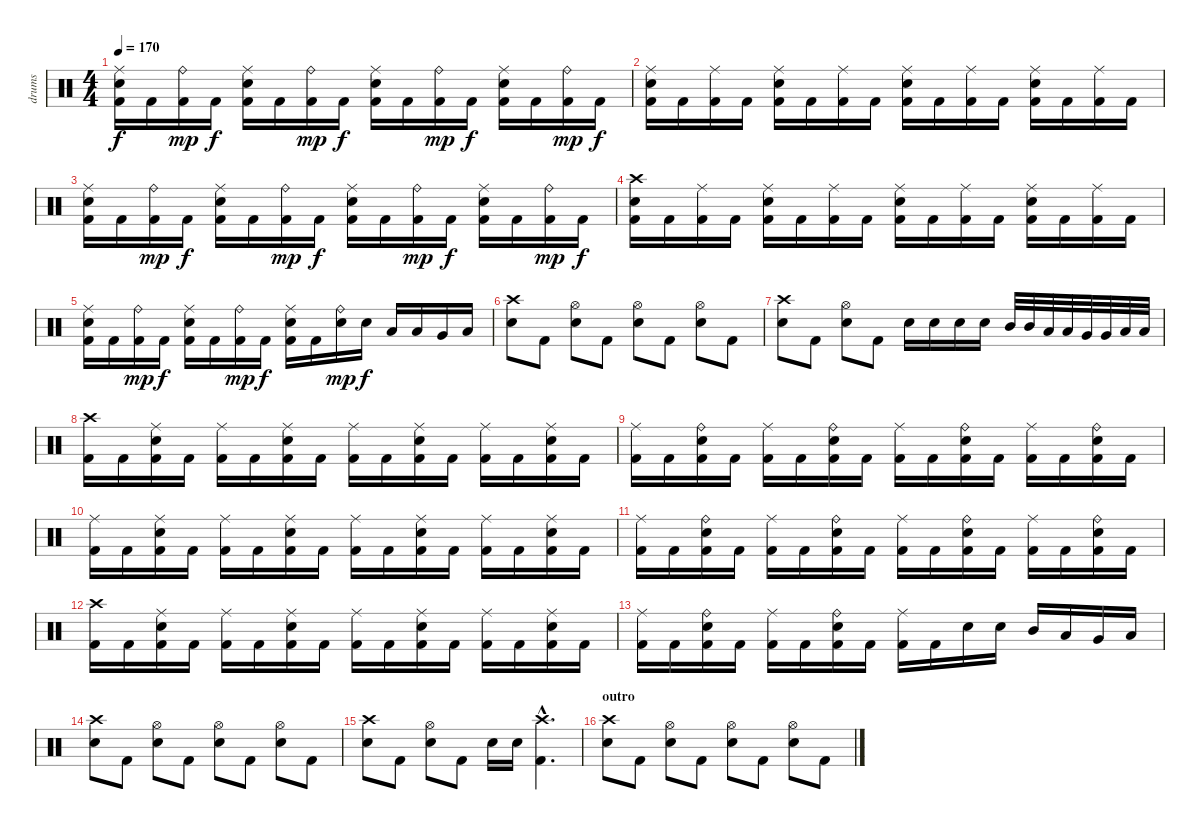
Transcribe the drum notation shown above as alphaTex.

\track ("drums" "drums") {instrument percussion}
\staff {score}
\articulation defaults
\ts (4 4)
\tempo 170
\clef neutral
\ks c
("Ride (middle)" "Electric Snare (hit)" "Kick (hit) 2").16{dy f} "Kick (hit) 2".16 ("Ride (bell)" "Kick (hit) 2").16{dy mp} "Kick (hit) 2".16{dy f} ("Ride (middle)" "Electric Snare (hit)" "Kick (hit) 2").16 "Kick (hit) 2".16 ("Ride (bell)" "Kick (hit) 2").16{dy mp} "Kick (hit) 2".16{dy f} ("Ride (middle)" "Electric Snare (hit)" "Kick (hit) 2").16 "Kick (hit) 2".16 ("Ride (bell)" "Kick (hit) 2").16{dy mp} "Kick (hit) 2".16{dy f} ("Ride (middle)" "Electric Snare (hit)" "Kick (hit) 2").16 "Kick (hit) 2".16 ("Ride (bell)" "Kick (hit) 2").16{dy mp} "Kick (hit) 2".16{dy f} |
("Ride (middle)" "Electric Snare (hit)" "Kick (hit) 2").16 "Kick (hit) 2".16 ("Ride (middle)" "Kick (hit) 2").16 "Kick (hit) 2".16 ("Ride (middle)" "Electric Snare (hit)" "Kick (hit) 2").16 "Kick (hit) 2".16 ("Ride (middle)" "Kick (hit) 2").16 "Kick (hit) 2".16 ("Ride (middle)" "Electric Snare (hit)" "Kick (hit) 2").16 "Kick (hit) 2".16 ("Ride (middle)" "Kick (hit) 2").16 "Kick (hit) 2".16 ("Ride (middle)" "Electric Snare (hit)" "Kick (hit) 2").16 "Kick (hit) 2".16 ("Ride (middle)" "Kick (hit) 2").16 "Kick (hit) 2".16 |
("Ride (middle)" "Electric Snare (hit)" "Kick (hit) 2").16 "Kick (hit) 2".16 ("Ride (bell)" "Kick (hit) 2").16{dy mp} "Kick (hit) 2".16{dy f} ("Ride (middle)" "Electric Snare (hit)" "Kick (hit) 2").16 "Kick (hit) 2".16 ("Ride (bell)" "Kick (hit) 2").16{dy mp} "Kick (hit) 2".16{dy f} ("Ride (middle)" "Electric Snare (hit)" "Kick (hit) 2").16 "Kick (hit) 2".16 ("Ride (bell)" "Kick (hit) 2").16{dy mp} "Kick (hit) 2".16{dy f} ("Ride (middle)" "Electric Snare (hit)" "Kick (hit) 2").16 "Kick (hit) 2".16 ("Ride (bell)" "Kick (hit) 2").16{dy mp} "Kick (hit) 2".16{dy f} |
("Crash high (hit)" "Electric Snare (hit)" "Kick (hit) 2").16 "Kick (hit) 2".16 ("Ride (middle)" "Kick (hit) 2").16 "Kick (hit) 2".16 ("Ride (middle)" "Electric Snare (hit)" "Kick (hit) 2").16 "Kick (hit) 2".16 ("Ride (middle)" "Kick (hit) 2").16 "Kick (hit) 2".16 ("Ride (middle)" "Electric Snare (hit)" "Kick (hit) 2").16 "Kick (hit) 2".16 ("Ride (middle)" "Kick (hit) 2").16 "Kick (hit) 2".16 ("Ride (middle)" "Electric Snare (hit)" "Kick (hit) 2").16 "Kick (hit) 2".16 ("Ride (middle)" "Kick (hit) 2").16 "Kick (hit) 2".16 |
("Ride (middle)" "Electric Snare (hit)" "Kick (hit) 2").16 "Kick (hit) 2".16 ("Ride (bell)" "Kick (hit) 2").16{dy mp} "Kick (hit) 2".16{dy f} ("Ride (middle)" "Electric Snare (hit)" "Kick (hit) 2").16 "Kick (hit) 2".16 ("Ride (bell)" "Kick (hit) 2").16{dy mp} "Kick (hit) 2".16{dy f} ("Ride (middle)" "Electric Snare (hit)" "Kick (hit) 2").16 "Kick (hit) 2".16 ("Ride (bell)" "Electric Snare (hit)").16{dy mp} "Electric Snare (hit)".16{dy f} "Low Tom (hit)".16 "Low Tom (hit)".16 "Very Low Tom (hit)".16 "Low Floor Tom (hit)".16 |
("Crash high (hit)" "Electric Snare (hit)").8 "Kick (hit) 2".8 ("Hi-Hat (open)" "Electric Snare (hit)").8 "Kick (hit) 2".8 ("Hi-Hat (open)" "Electric Snare (hit)").8 "Kick (hit) 2".8 ("Hi-Hat (open)" "Electric Snare (hit)").8 "Kick (hit) 2".8 |
("Crash high (hit)" "Electric Snare (hit)").8 "Kick (hit) 2".8 ("Hi-Hat (open)" "Electric Snare (hit)").8 "Kick (hit) 2".8 "Electric Snare (hit)".16 "Electric Snare (hit)".16 "Electric Snare (hit)".16 "Electric Snare (hit)".16 "Mid Tom (hit)".32 "Mid Tom (hit)".32 "Low Tom (hit)".32 "Low Tom (hit)".32 "Very Low Tom (hit)".32 "Very Low Tom (hit)".32 "Low Floor Tom (hit)".32 "Low Floor Tom (hit)".32 |
("Crash high (hit)" "Kick (hit) 2").16 "Kick (hit) 2".16 ("Ride (middle)" "Electric Snare (hit)" "Kick (hit) 2").16 "Kick (hit) 2".16 ("Ride (middle)" "Kick (hit) 2").16 "Kick (hit) 2".16 ("Ride (middle)" "Electric Snare (hit)" "Kick (hit) 2").16 "Kick (hit) 2".16 ("Ride (middle)" "Kick (hit) 2").16 "Kick (hit) 2".16 ("Ride (middle)" "Electric Snare (hit)" "Kick (hit) 2").16 "Kick (hit) 2".16 ("Ride (middle)" "Kick (hit) 2").16 "Kick (hit) 2".16 ("Ride (middle)" "Electric Snare (hit)" "Kick (hit) 2").16 "Kick (hit) 2".16 |
("Ride (middle)" "Kick (hit) 2").16 "Kick (hit) 2".16 ("Ride (bell)" "Electric Snare (hit)" "Kick (hit) 2").16 "Kick (hit) 2".16 ("Ride (middle)" "Kick (hit) 2").16 "Kick (hit) 2".16 ("Ride (bell)" "Electric Snare (hit)" "Kick (hit) 2").16 "Kick (hit) 2".16 ("Ride (middle)" "Kick (hit) 2").16 "Kick (hit) 2".16 ("Ride (bell)" "Electric Snare (hit)" "Kick (hit) 2").16 "Kick (hit) 2".16 ("Ride (middle)" "Kick (hit) 2").16 "Kick (hit) 2".16 ("Ride (bell)" "Electric Snare (hit)" "Kick (hit) 2").16 "Kick (hit) 2".16 |
("Ride (middle)" "Kick (hit) 2").16 "Kick (hit) 2".16 ("Ride (middle)" "Electric Snare (hit)" "Kick (hit) 2").16 "Kick (hit) 2".16 ("Ride (middle)" "Kick (hit) 2").16 "Kick (hit) 2".16 ("Ride (middle)" "Electric Snare (hit)" "Kick (hit) 2").16 "Kick (hit) 2".16 ("Ride (middle)" "Kick (hit) 2").16 "Kick (hit) 2".16 ("Ride (middle)" "Electric Snare (hit)" "Kick (hit) 2").16 "Kick (hit) 2".16 ("Ride (middle)" "Kick (hit) 2").16 "Kick (hit) 2".16 ("Ride (middle)" "Electric Snare (hit)" "Kick (hit) 2").16 "Kick (hit) 2".16 |
("Ride (middle)" "Kick (hit) 2").16 "Kick (hit) 2".16 ("Ride (bell)" "Electric Snare (hit)" "Kick (hit) 2").16 "Kick (hit) 2".16 ("Ride (middle)" "Kick (hit) 2").16 "Kick (hit) 2".16 ("Ride (bell)" "Electric Snare (hit)" "Kick (hit) 2").16 "Kick (hit) 2".16 ("Ride (middle)" "Kick (hit) 2").16 "Kick (hit) 2".16 ("Ride (bell)" "Electric Snare (hit)" "Kick (hit) 2").16 "Kick (hit) 2".16 ("Ride (middle)" "Kick (hit) 2").16 "Kick (hit) 2".16 ("Ride (bell)" "Electric Snare (hit)" "Kick (hit) 2").16 "Kick (hit) 2".16 |
("Crash high (hit)" "Kick (hit) 2").16 "Kick (hit) 2".16 ("Ride (middle)" "Electric Snare (hit)" "Kick (hit) 2").16 "Kick (hit) 2".16 ("Ride (middle)" "Kick (hit) 2").16 "Kick (hit) 2".16 ("Ride (middle)" "Electric Snare (hit)" "Kick (hit) 2").16 "Kick (hit) 2".16 ("Ride (middle)" "Kick (hit) 2").16 "Kick (hit) 2".16 ("Ride (middle)" "Electric Snare (hit)" "Kick (hit) 2").16 "Kick (hit) 2".16 ("Ride (middle)" "Kick (hit) 2").16 "Kick (hit) 2".16 ("Ride (middle)" "Electric Snare (hit)" "Kick (hit) 2").16 "Kick (hit) 2".16 |
("Ride (middle)" "Kick (hit) 2").16 "Kick (hit) 2".16 ("Ride (bell)" "Electric Snare (hit)" "Kick (hit) 2").16 "Kick (hit) 2".16 ("Ride (middle)" "Kick (hit) 2").16 "Kick (hit) 2".16 ("Ride (bell)" "Electric Snare (hit)" "Kick (hit) 2").16 "Kick (hit) 2".16 ("Ride (middle)" "Kick (hit) 2").16 "Kick (hit) 2".16 "Electric Snare (hit)".16 "Electric Snare (hit)".16 "Mid Tom (hit)".16 "Low Tom (hit)".16 "Very Low Tom (hit)".16 "Low Floor Tom (hit)".16 |
("Crash high (hit)" "Electric Snare (hit)").8 "Kick (hit) 2".8 ("Hi-Hat (open)" "Electric Snare (hit)").8 "Kick (hit) 2".8 ("Hi-Hat (open)" "Electric Snare (hit)").8 "Kick (hit) 2".8 ("Hi-Hat (open)" "Electric Snare (hit)").8 "Kick (hit) 2".8 |
("Crash high (hit)" "Electric Snare (hit)").8 "Kick (hit) 2".8 ("Hi-Hat (open)" "Electric Snare (hit)").8 "Kick (hit) 2".8 "Electric Snare (hit)".16 "Electric Snare (hit)".16 ("Crash high (hit)"{hac} "Kick (hit) 2"{hac}).4{d} |
\section ("" "outro")
("Crash high (hit)" "Electric Snare (hit)").8 "Kick (hit) 2".8 ("Hi-Hat (open)" "Electric Snare (hit)").8 "Kick (hit) 2".8 ("Hi-Hat (open)" "Electric Snare (hit)").8 "Kick (hit) 2".8 ("Hi-Hat (open)" "Electric Snare (hit)").8 "Kick (hit) 2".8
